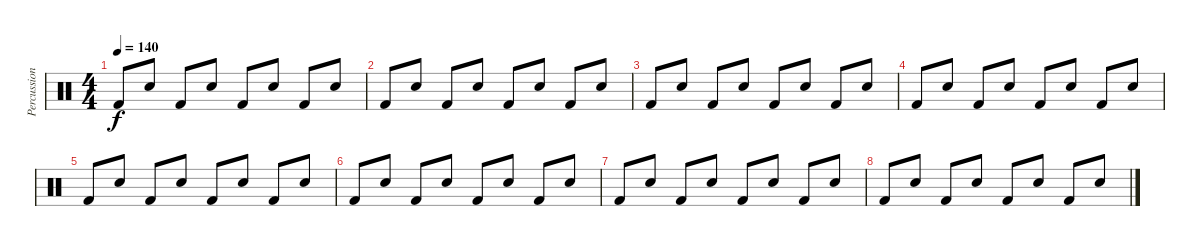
\track ("Percussion" "Percussion") {instrument percussion}
\staff {score}
\articulation defaults
\ts (4 4)
\tempo 140
\clef neutral
\ks c "Kick (hit) 2".8{dy f} "Electric Snare (hit)".8 "Kick (hit) 2".8 "Electric Snare (hit)".8 "Kick (hit) 2".8 "Electric Snare (hit)".8 "Kick (hit) 2".8 "Electric Snare (hit)".8
|
"Kick (hit) 2".8 "Electric Snare (hit)".8 "Kick (hit) 2".8 "Electric Snare (hit)".8 "Kick (hit) 2".8 "Electric Snare (hit)".8 "Kick (hit) 2".8 "Electric Snare (hit)".8 |
"Kick (hit) 2".8 "Electric Snare (hit)".8 "Kick (hit) 2".8 "Electric Snare (hit)".8 "Kick (hit) 2".8 "Electric Snare (hit)".8 "Kick (hit) 2".8 "Electric Snare (hit)".8 |
"Kick (hit) 2".8 "Electric Snare (hit)".8 "Kick (hit) 2".8 "Electric Snare (hit)".8 "Kick (hit) 2".8 "Electric Snare (hit)".8 "Kick (hit) 2".8 "Electric Snare (hit)".8 |
"Kick (hit) 2".8 "Electric Snare (hit)".8 "Kick (hit) 2".8 "Electric Snare (hit)".8 "Kick (hit) 2".8 "Electric Snare (hit)".8 "Kick (hit) 2".8 "Electric Snare (hit)".8 |
"Kick (hit) 2".8 "Electric Snare (hit)".8 "Kick (hit) 2".8 "Electric Snare (hit)".8 "Kick (hit) 2".8 "Electric Snare (hit)".8 "Kick (hit) 2".8 "Electric Snare (hit)".8 |
"Kick (hit) 2".8 "Electric Snare (hit)".8 "Kick (hit) 2".8 "Electric Snare (hit)".8 "Kick (hit) 2".8 "Electric Snare (hit)".8 "Kick (hit) 2".8 "Electric Snare (hit)".8 |
"Kick (hit) 2".8 "Electric Snare (hit)".8 "Kick (hit) 2".8 "Electric Snare (hit)".8 "Kick (hit) 2".8 "Electric Snare (hit)".8 "Kick (hit) 2".8 "Electric Snare (hit)".8
